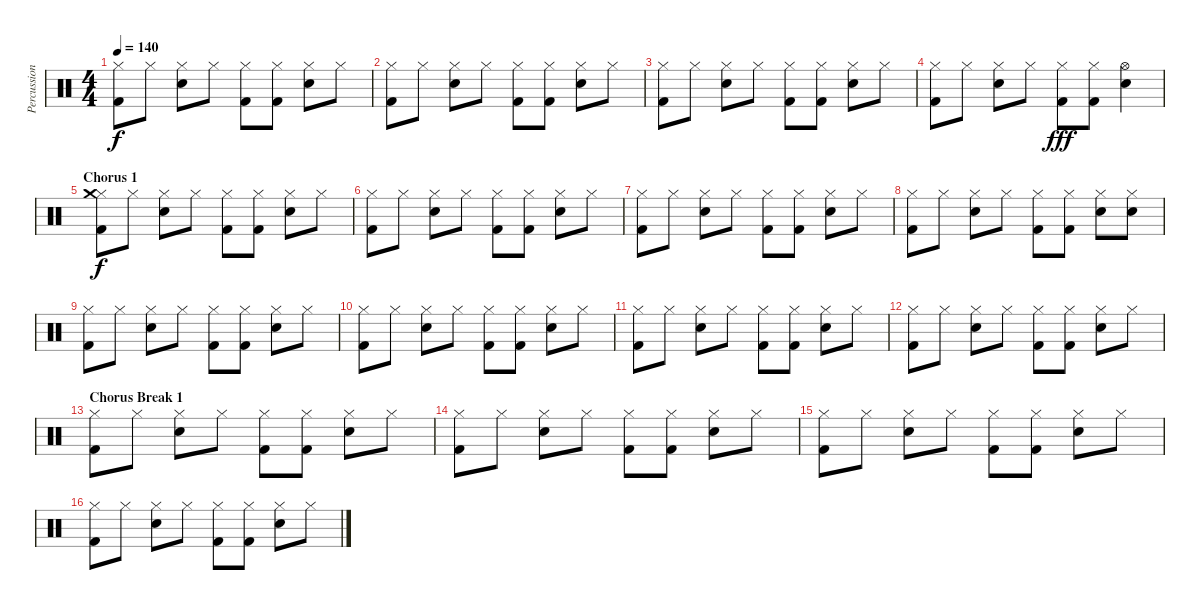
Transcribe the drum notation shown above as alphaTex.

\track ("Percussions" "Percussion") {instrument percussion}
\staff {score}
\articulation defaults
\ts (4 4)
\tempo 140
\clef neutral
\ks c
("Hi-Hat (closed)" "Kick (hit) 2").8{dy f} "Hi-Hat (closed)".8 ("Hi-Hat (closed)" "Electric Snare (hit)").8 "Hi-Hat (closed)".8 ("Hi-Hat (closed)" "Kick (hit) 2").8 ("Hi-Hat (closed)" "Kick (hit) 2").8 ("Hi-Hat (closed)" "Electric Snare (hit)").8 "Hi-Hat (closed)".8 |
("Hi-Hat (closed)" "Kick (hit) 2").8 "Hi-Hat (closed)".8 ("Hi-Hat (closed)" "Electric Snare (hit)").8 "Hi-Hat (closed)".8 ("Hi-Hat (closed)" "Kick (hit) 2").8 ("Hi-Hat (closed)" "Kick (hit) 2").8 ("Hi-Hat (closed)" "Electric Snare (hit)").8 "Hi-Hat (closed)".8 |
("Hi-Hat (closed)" "Kick (hit) 2").8 "Hi-Hat (closed)".8 ("Hi-Hat (closed)" "Electric Snare (hit)").8 "Hi-Hat (closed)".8 ("Hi-Hat (closed)" "Kick (hit) 2").8 ("Hi-Hat (closed)" "Kick (hit) 2").8 ("Hi-Hat (closed)" "Electric Snare (hit)").8 "Hi-Hat (closed)".8 |
("Hi-Hat (closed)" "Kick (hit) 2").8 "Hi-Hat (closed)".8 ("Hi-Hat (closed)" "Electric Snare (hit)").8 "Hi-Hat (closed)".8 ("Hi-Hat (closed)" "Kick (hit) 2").8{dy fff} ("Hi-Hat (closed)" "Kick (hit) 2").8 ("Hi-Hat (open)" "Electric Snare (hit)").4 |
\section ("" "Chorus 1")
("Hi-Hat (closed)" "Crash medium (hit)" "Kick (hit) 2").8{dy f} "Hi-Hat (closed)".8 ("Hi-Hat (closed)" "Electric Snare (hit)").8 "Hi-Hat (closed)".8 ("Hi-Hat (closed)" "Kick (hit) 2").8 ("Hi-Hat (closed)" "Kick (hit) 2").8 ("Hi-Hat (closed)" "Electric Snare (hit)").8 "Hi-Hat (closed)".8 |
("Hi-Hat (closed)" "Kick (hit) 2").8 "Hi-Hat (closed)".8 ("Hi-Hat (closed)" "Electric Snare (hit)").8 "Hi-Hat (closed)".8 ("Hi-Hat (closed)" "Kick (hit) 2").8 ("Hi-Hat (closed)" "Kick (hit) 2").8 ("Hi-Hat (closed)" "Electric Snare (hit)").8 "Hi-Hat (closed)".8 |
("Hi-Hat (closed)" "Kick (hit) 2").8 "Hi-Hat (closed)".8 ("Hi-Hat (closed)" "Electric Snare (hit)").8 "Hi-Hat (closed)".8 ("Hi-Hat (closed)" "Kick (hit) 2").8 ("Hi-Hat (closed)" "Kick (hit) 2").8 ("Hi-Hat (closed)" "Electric Snare (hit)").8 "Hi-Hat (closed)".8 |
("Hi-Hat (closed)" "Kick (hit) 2").8 "Hi-Hat (closed)".8 ("Hi-Hat (closed)" "Electric Snare (hit)").8 "Hi-Hat (closed)".8 ("Hi-Hat (closed)" "Kick (hit) 2").8 ("Hi-Hat (closed)" "Kick (hit) 2").8 ("Hi-Hat (closed)" "Electric Snare (hit)").8 ("Hi-Hat (closed)" "Electric Snare (hit)").8 |
("Hi-Hat (closed)" "Kick (hit) 2").8 "Hi-Hat (closed)".8 ("Hi-Hat (closed)" "Electric Snare (hit)").8 "Hi-Hat (closed)".8 ("Hi-Hat (closed)" "Kick (hit) 2").8 ("Hi-Hat (closed)" "Kick (hit) 2").8 ("Hi-Hat (closed)" "Electric Snare (hit)").8 "Hi-Hat (closed)".8 |
("Hi-Hat (closed)" "Kick (hit) 2").8 "Hi-Hat (closed)".8 ("Hi-Hat (closed)" "Electric Snare (hit)").8 "Hi-Hat (closed)".8 ("Hi-Hat (closed)" "Kick (hit) 2").8 ("Hi-Hat (closed)" "Kick (hit) 2").8 ("Hi-Hat (closed)" "Electric Snare (hit)").8 "Hi-Hat (closed)".8 |
("Hi-Hat (closed)" "Kick (hit) 2").8 "Hi-Hat (closed)".8 ("Hi-Hat (closed)" "Electric Snare (hit)").8 "Hi-Hat (closed)".8 ("Hi-Hat (closed)" "Kick (hit) 2").8 ("Hi-Hat (closed)" "Kick (hit) 2").8 ("Hi-Hat (closed)" "Electric Snare (hit)").8 "Hi-Hat (closed)".8 |
("Hi-Hat (closed)" "Kick (hit) 2").8 "Hi-Hat (closed)".8 ("Hi-Hat (closed)" "Electric Snare (hit)").8 "Hi-Hat (closed)".8 ("Hi-Hat (closed)" "Kick (hit) 2").8 ("Hi-Hat (closed)" "Kick (hit) 2").8 ("Hi-Hat (closed)" "Electric Snare (hit)").8 "Hi-Hat (closed)".8 |
\section ("" "Chorus Break 1")
("Hi-Hat (closed)" "Kick (hit) 2").8 "Hi-Hat (closed)".8 ("Hi-Hat (closed)" "Electric Snare (hit)").8 "Hi-Hat (closed)".8 ("Hi-Hat (closed)" "Kick (hit) 2").8 ("Hi-Hat (closed)" "Kick (hit) 2").8 ("Hi-Hat (closed)" "Electric Snare (hit)").8 "Hi-Hat (closed)".8 |
("Hi-Hat (closed)" "Kick (hit) 2").8 "Hi-Hat (closed)".8 ("Hi-Hat (closed)" "Electric Snare (hit)").8 "Hi-Hat (closed)".8 ("Hi-Hat (closed)" "Kick (hit) 2").8 ("Hi-Hat (closed)" "Kick (hit) 2").8 ("Hi-Hat (closed)" "Electric Snare (hit)").8 "Hi-Hat (closed)".8 |
("Hi-Hat (closed)" "Kick (hit) 2").8 "Hi-Hat (closed)".8 ("Hi-Hat (closed)" "Electric Snare (hit)").8 "Hi-Hat (closed)".8 ("Hi-Hat (closed)" "Kick (hit) 2").8 ("Hi-Hat (closed)" "Kick (hit) 2").8 ("Hi-Hat (closed)" "Electric Snare (hit)").8 "Hi-Hat (closed)".8 |
("Hi-Hat (closed)" "Kick (hit) 2").8 "Hi-Hat (closed)".8 ("Hi-Hat (closed)" "Electric Snare (hit)").8 "Hi-Hat (closed)".8 ("Hi-Hat (closed)" "Kick (hit) 2").8 ("Hi-Hat (closed)" "Kick (hit) 2").8 ("Hi-Hat (closed)" "Electric Snare (hit)").8 "Hi-Hat (closed)".8
